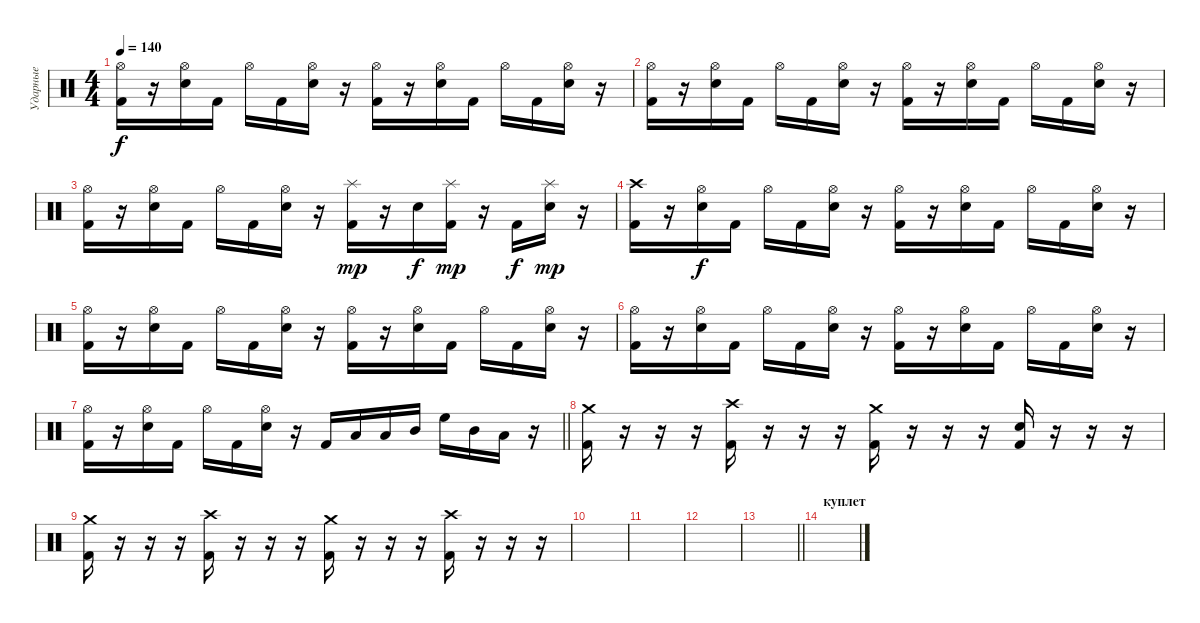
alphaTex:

\track ("Ударные" "Ударные") {instrument percussion}
\staff {score}
\articulation defaults
\ts (4 4)
\tempo 140
\clef neutral
\ks c
("Hi-Hat (open)" "Kick (hit) 2").16{dy f} r.16 ("Hi-Hat (open)" "Electric Snare (hit)").16 "Kick (hit) 2".16 "Hi-Hat (open)".16 "Kick (hit) 2".16 ("Hi-Hat (open)" "Electric Snare (hit)").16 r.16 ("Hi-Hat (open)" "Kick (hit) 2").16 r.16 ("Hi-Hat (open)" "Electric Snare (hit)").16 "Kick (hit) 2".16 "Hi-Hat (open)".16 "Kick (hit) 2".16 ("Hi-Hat (open)" "Electric Snare (hit)").16 r.16 |
("Hi-Hat (open)" "Kick (hit) 2").16 r.16 ("Hi-Hat (open)" "Electric Snare (hit)").16 "Kick (hit) 2".16 "Hi-Hat (open)".16 "Kick (hit) 2".16 ("Hi-Hat (open)" "Electric Snare (hit)").16 r.16 ("Hi-Hat (open)" "Kick (hit) 2").16 r.16 ("Hi-Hat (open)" "Electric Snare (hit)").16 "Kick (hit) 2".16 "Hi-Hat (open)".16 "Kick (hit) 2".16 ("Hi-Hat (open)" "Electric Snare (hit)").16 r.16 |
("Hi-Hat (open)" "Kick (hit) 2").16 r.16 ("Hi-Hat (open)" "Electric Snare (hit)").16 "Kick (hit) 2".16 "Hi-Hat (open)".16 "Kick (hit) 2".16 ("Hi-Hat (open)" "Electric Snare (hit)").16 r.16 ("Splash (hit)" "Kick (hit) 2").16{dy mp} r.16 "Electric Snare (hit)".16{dy f} ("Splash (hit)" "Kick (hit) 2").16{dy mp} r.16 "Kick (hit) 2".16{dy f} ("Splash (hit)" "Electric Snare (hit)").16{dy mp} r.16 |
("Crash high (hit)" "Kick (hit) 2").16 r.16 ("Hi-Hat (open)" "Electric Snare (hit)").16{dy f} "Kick (hit) 2".16 "Hi-Hat (open)".16 "Kick (hit) 2".16 ("Hi-Hat (open)" "Electric Snare (hit)").16 r.16 ("Hi-Hat (open)" "Kick (hit) 2").16 r.16 ("Hi-Hat (open)" "Electric Snare (hit)").16 "Kick (hit) 2".16 "Hi-Hat (open)".16 "Kick (hit) 2".16 ("Hi-Hat (open)" "Electric Snare (hit)").16 r.16 |
("Hi-Hat (open)" "Kick (hit) 2").16 r.16 ("Hi-Hat (open)" "Electric Snare (hit)").16 "Kick (hit) 2".16 "Hi-Hat (open)".16 "Kick (hit) 2".16 ("Hi-Hat (open)" "Electric Snare (hit)").16 r.16 ("Hi-Hat (open)" "Kick (hit) 2").16 r.16 ("Hi-Hat (open)" "Electric Snare (hit)").16 "Kick (hit) 2".16 "Hi-Hat (open)".16 "Kick (hit) 2".16 ("Hi-Hat (open)" "Electric Snare (hit)").16 r.16 |
("Hi-Hat (open)" "Kick (hit) 2").16 r.16 ("Hi-Hat (open)" "Electric Snare (hit)").16 "Kick (hit) 2".16 "Hi-Hat (open)".16 "Kick (hit) 2".16 ("Hi-Hat (open)" "Electric Snare (hit)").16 r.16 ("Hi-Hat (open)" "Kick (hit) 2").16 r.16 ("Hi-Hat (open)" "Electric Snare (hit)").16 "Kick (hit) 2".16 "Hi-Hat (open)".16 "Kick (hit) 2".16 ("Hi-Hat (open)" "Electric Snare (hit)").16 r.16 |
\barLineRight lightlight
("Hi-Hat (open)" "Kick (hit) 2").16 r.16 ("Hi-Hat (open)" "Electric Snare (hit)").16 "Kick (hit) 2".16 "Hi-Hat (open)".16 "Kick (hit) 2".16 ("Hi-Hat (open)" "Electric Snare (hit)").16 r.16 "Kick (hit) 2".16 "Low Tom (hit)".16 "Low Tom (hit)".16 "Mid Tom (hit)".16 "High Floor Tom (hit)".16 "Mid Tom (hit)".16 "Low Tom (hit)".16 r.16 |
("Crash medium (hit)" "Kick (hit) 2").16 r.16 r.16 r.16 ("Crash high (hit)" "Kick (hit) 2").16 r.16 r.16 r.16 ("Crash medium (hit)" "Kick (hit) 2").16 r.16 r.16 r.16 ("Electric Snare (hit)" "Kick (hit) 2").16 r.16 r.16 r.16 |
("Crash medium (hit)" "Kick (hit) 2").16 r.16 r.16 r.16 ("Crash high (hit)" "Kick (hit) 2").16 r.16 r.16 r.16 ("Crash medium (hit)" "Kick (hit) 2").16 r.16 r.16 r.16 ("Crash high (hit)" "Kick (hit) 2").16 r.16 r.16 r.16 |
|
|
|
\barLineRight lightlight
|
\section ("" "куплет")
